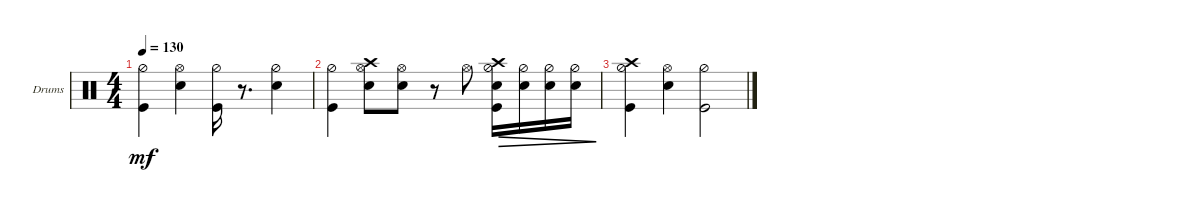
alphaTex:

\defaultSystemsLayout 4
\bracketExtendMode groupsimilarinstruments
\firstSystemTrackNameOrientation horizontal
\otherSystemsTrackNameOrientation horizontal
\track ("Drumkit" "Drums") {instrument percussion}
\staff {score}
\articulation defaults
\ts (4 4)
\tempo 130
\clef neutral
\ks c
("Hi-Hat (half)" "Kick (hit)").4{dy mf} ("Snare (hit) 2" "Hi-Hat (open)").4 ("Hi-Hat (half)" "Kick (hit)").16 r.8{d} ("Snare (hit) 2" "Hi-Hat (half)").4 |
("Hi-Hat (half)" "Kick (hit)").4 ("Snare (hit) 2" "Hi-Hat (open)" "Crash high (hit)").8 ("Snare (hit) 2" "Hi-Hat (open)").8 r.8 "Hi-Hat (open)".8 ("Snare (hit) 2" "Hi-Hat (half)" "Crash high (hit)" "Kick (hit)").16{dec} ("Snare (hit) 2" "Hi-Hat (half)").16{dec} ("Snare (hit) 2" "Hi-Hat (half)").16{dec} ("Snare (hit) 2" "Hi-Hat (half)").16{dec} |
("Hi-Hat (half)" "Kick (hit)" "Crash high (hit)").4 ("Snare (hit) 2" "Hi-Hat (open)").4 ("Hi-Hat (half)" "Kick (hit)").2
